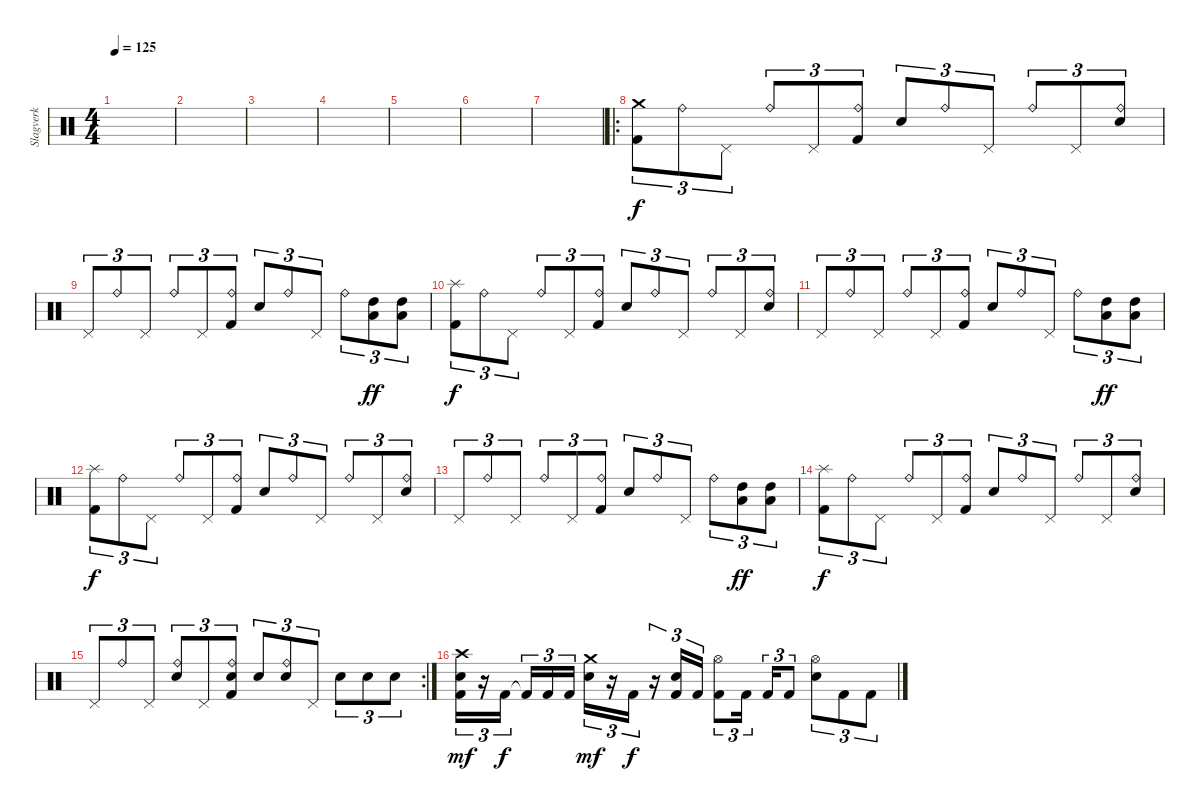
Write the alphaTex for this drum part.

\track ("Slagverk" "Slagverk") {instrument percussion}
\staff {score}
\articulation defaults
\ts (4 4)
\tempo 125
\clef neutral
\ks c
|
|
|
|
|
|
|
\ro
("Crash medium (hit)" "Kick (hit) 2").8{tu (3 2)} "Ride (bell)".8{tu (3 2)} "Pedal Hi-Hat (hit)".8{tu (3 2)} "Ride (bell)".8{tu (3 2)} "Pedal Hi-Hat (hit)".8{tu (3 2)} ("Ride (bell)" "Kick (hit) 2").8{tu (3 2)} "Electric Snare (hit)".8{tu (3 2)} "Ride (bell)".8{tu (3 2)} "Pedal Hi-Hat (hit)".8{tu (3 2)} "Ride (bell)".8{tu (3 2)} "Pedal Hi-Hat (hit)".8{tu (3 2)} ("Ride (bell)" "Electric Snare (hit)").8{tu (3 2)} |
"Pedal Hi-Hat (hit)".8{tu (3 2)} "Ride (bell)".8{tu (3 2)} "Pedal Hi-Hat (hit)".8{tu (3 2)} "Ride (bell)".8{tu (3 2)} "Pedal Hi-Hat (hit)".8{tu (3 2)} ("Ride (bell)" "Kick (hit) 2").8{tu (3 2)} "Electric Snare (hit)".8{tu (3 2)} "Ride (bell)".8{tu (3 2)} "Pedal Hi-Hat (hit)".8{tu (3 2)} "Ride (bell)".8{tu (3 2)} ("High Tom (hit)" "Low Tom (hit)").8{tu (3 2) dy ff} ("High Tom (hit)" "Low Tom (hit)").8{tu (3 2)} |
("Splash (hit)" "Kick (hit) 2").8{tu (3 2) dy f} "Ride (bell)".8{tu (3 2)} "Pedal Hi-Hat (hit)".8{tu (3 2)} "Ride (bell)".8{tu (3 2)} "Pedal Hi-Hat (hit)".8{tu (3 2)} ("Ride (bell)" "Kick (hit) 2").8{tu (3 2)} "Electric Snare (hit)".8{tu (3 2)} "Ride (bell)".8{tu (3 2)} "Pedal Hi-Hat (hit)".8{tu (3 2)} "Ride (bell)".8{tu (3 2)} "Pedal Hi-Hat (hit)".8{tu (3 2)} ("Ride (bell)" "Electric Snare (hit)").8{tu (3 2)} |
"Pedal Hi-Hat (hit)".8{tu (3 2)} "Ride (bell)".8{tu (3 2)} "Pedal Hi-Hat (hit)".8{tu (3 2)} "Ride (bell)".8{tu (3 2)} "Pedal Hi-Hat (hit)".8{tu (3 2)} ("Ride (bell)" "Kick (hit) 2").8{tu (3 2)} "Electric Snare (hit)".8{tu (3 2)} "Ride (bell)".8{tu (3 2)} "Pedal Hi-Hat (hit)".8{tu (3 2)} "Ride (bell)".8{tu (3 2)} ("High Tom (hit)" "Low Tom (hit)").8{tu (3 2) dy ff} ("High Tom (hit)" "Low Tom (hit)").8{tu (3 2)} |
("Splash (hit)" "Kick (hit) 2").8{tu (3 2) dy f} "Ride (bell)".8{tu (3 2)} "Pedal Hi-Hat (hit)".8{tu (3 2)} "Ride (bell)".8{tu (3 2)} "Pedal Hi-Hat (hit)".8{tu (3 2)} ("Ride (bell)" "Kick (hit) 2").8{tu (3 2)} "Electric Snare (hit)".8{tu (3 2)} "Ride (bell)".8{tu (3 2)} "Pedal Hi-Hat (hit)".8{tu (3 2)} "Ride (bell)".8{tu (3 2)} "Pedal Hi-Hat (hit)".8{tu (3 2)} ("Ride (bell)" "Electric Snare (hit)").8{tu (3 2)} |
"Pedal Hi-Hat (hit)".8{tu (3 2)} "Ride (bell)".8{tu (3 2)} "Pedal Hi-Hat (hit)".8{tu (3 2)} "Ride (bell)".8{tu (3 2)} "Pedal Hi-Hat (hit)".8{tu (3 2)} ("Ride (bell)" "Kick (hit) 2").8{tu (3 2)} "Electric Snare (hit)".8{tu (3 2)} "Ride (bell)".8{tu (3 2)} "Pedal Hi-Hat (hit)".8{tu (3 2)} "Ride (bell)".8{tu (3 2)} ("High Tom (hit)" "Low Tom (hit)").8{tu (3 2) dy ff} ("High Tom (hit)" "Low Tom (hit)").8{tu (3 2)} |
("Splash (hit)" "Kick (hit) 2").8{tu (3 2) dy f} "Ride (bell)".8{tu (3 2)} "Pedal Hi-Hat (hit)".8{tu (3 2)} "Ride (bell)".8{tu (3 2)} "Pedal Hi-Hat (hit)".8{tu (3 2)} ("Ride (bell)" "Kick (hit) 2").8{tu (3 2)} "Electric Snare (hit)".8{tu (3 2)} "Ride (bell)".8{tu (3 2)} "Pedal Hi-Hat (hit)".8{tu (3 2)} "Ride (bell)".8{tu (3 2)} "Pedal Hi-Hat (hit)".8{tu (3 2)} ("Ride (bell)" "Electric Snare (hit)").8{tu (3 2)} |
\rc 2 "Pedal Hi-Hat (hit)".8{tu (3 2)} "Ride (bell)".8{tu (3 2)} "Pedal Hi-Hat (hit)".8{tu (3 2)}
("Ride (bell)" "Electric Snare (hit)").8{tu (3 2)} "Pedal Hi-Hat (hit)".8{tu (3 2)} ("Ride (bell)" "Electric Snare (hit)" "Kick (hit) 2").8{tu (3 2)} "Electric Snare (hit)".8{tu (3 2)} ("Ride (bell)" "Electric Snare (hit)").8{tu (3 2)} "Pedal Hi-Hat (hit)".8{tu (3 2)} "Electric Snare (hit)".8{tu (3 2)} "Electric Snare (hit)".8{tu (3 2)} "Electric Snare (hit)".8{tu (3 2)} |
("Crash high (hit)" "Electric Snare (hit)" "Kick (hit) 2").16{tu (3 2) dy mf} r.16{tu (3 2)} "Kick (hit) 2".16{tu (3 2) dy f beam splitsecondary} "Kick (hit) 2"{t}.16{tu (3 2)} "Kick (hit) 2".16{tu (3 2)} "Kick (hit) 2".16{tu (3 2)} ("Crash medium (hit)" "Electric Snare (hit)").16{tu (3 2) dy mf} r.16{tu (3 2)} "Kick (hit) 2".16{tu (3 2) dy f} r.16{tu (3 2)} ("Electric Snare (hit)" "Kick (hit) 2").16{tu (3 2)} "Kick (hit) 2".16{tu (3 2)} ("Hi-Hat (open)" "Kick (hit) 2").8{tu (3 2)} "Kick (hit) 2".16{tu (3 2) beam splitsecondary} "Kick (hit) 2".16{tu (3 2)} "Kick (hit) 2".8{tu (3 2)} ("Hi-Hat (open)" "Electric Snare (hit)").8{tu (3 2)} "Kick (hit) 2".8{tu (3 2)} "Kick (hit) 2".8{tu (3 2)}
